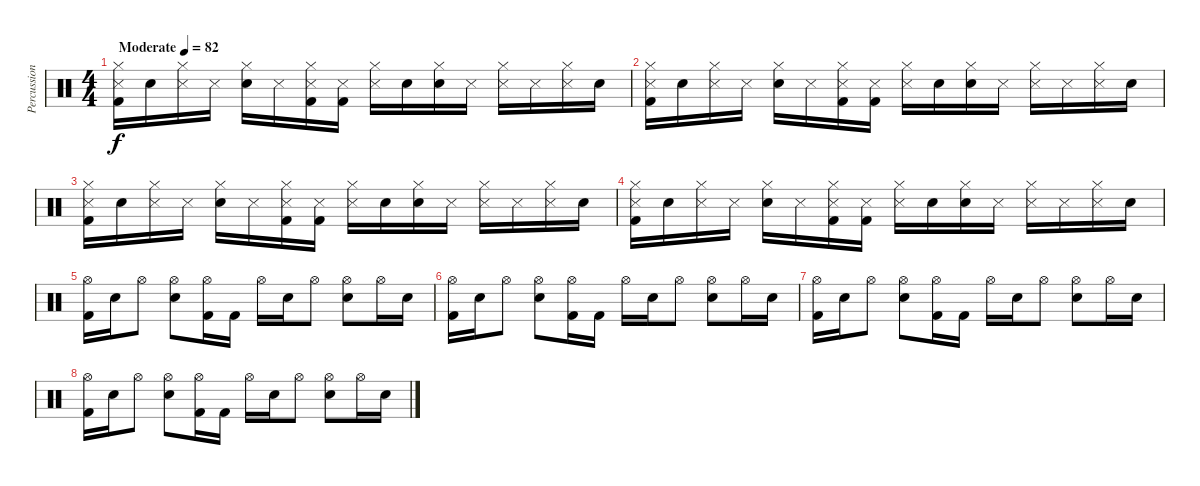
\track ("Percussion" "Percussion") {instrument percussion}
\staff {score}
\articulation defaults
\ts (4 4)
\tempo (82 "Moderate")
\clef neutral
\ks c
("Hi-Hat (closed)" "Snare (side stick) 3" "Kick (hit) 2").16{dy f} "Snare (hit) 2".16 ("Hi-Hat (closed)" "Snare (side stick) 3").16 "Snare (side stick) 3".16 ("Hi-Hat (closed)" "Snare (hit) 2").16 "Snare (side stick) 3".16 ("Hi-Hat (closed)" "Snare (side stick) 3" "Kick (hit) 2").16 ("Snare (side stick) 3" "Kick (hit) 2").16 ("Hi-Hat (closed)" "Snare (side stick) 3").16 "Snare (hit) 2".16 ("Hi-Hat (closed)" "Snare (hit) 2").16 "Snare (side stick) 3".16 ("Hi-Hat (closed)" "Snare (side stick) 3").16 "Snare (side stick) 3".16 ("Hi-Hat (closed)" "Snare (side stick) 3").16 "Snare (hit) 2".16 |
("Hi-Hat (closed)" "Snare (side stick) 3" "Kick (hit) 2").16 "Snare (hit) 2".16 ("Hi-Hat (closed)" "Snare (side stick) 3").16 "Snare (side stick) 3".16 ("Hi-Hat (closed)" "Snare (hit) 2").16 "Snare (side stick) 3".16 ("Hi-Hat (closed)" "Snare (side stick) 3" "Kick (hit) 2").16 ("Snare (side stick) 3" "Kick (hit) 2").16 ("Hi-Hat (closed)" "Snare (side stick) 3").16 "Snare (hit) 2".16 ("Hi-Hat (closed)" "Snare (hit) 2").16 "Snare (side stick) 3".16 ("Hi-Hat (closed)" "Snare (side stick) 3").16 "Snare (side stick) 3".16 ("Hi-Hat (closed)" "Snare (side stick) 3").16 "Snare (hit) 2".16 |
("Hi-Hat (closed)" "Snare (side stick) 3" "Kick (hit) 2").16 "Snare (hit) 2".16 ("Hi-Hat (closed)" "Snare (side stick) 3").16 "Snare (side stick) 3".16 ("Hi-Hat (closed)" "Snare (hit) 2").16 "Snare (side stick) 3".16 ("Hi-Hat (closed)" "Snare (side stick) 3" "Kick (hit) 2").16 ("Snare (side stick) 3" "Kick (hit) 2").16 ("Hi-Hat (closed)" "Snare (side stick) 3").16 "Snare (hit) 2".16 ("Hi-Hat (closed)" "Snare (hit) 2").16 "Snare (side stick) 3".16 ("Hi-Hat (closed)" "Snare (side stick) 3").16 "Snare (side stick) 3".16 ("Hi-Hat (closed)" "Snare (side stick) 3").16 "Snare (hit) 2".16 |
("Hi-Hat (closed)" "Snare (side stick) 3" "Kick (hit) 2").16 "Snare (hit) 2".16 ("Hi-Hat (closed)" "Snare (side stick) 3").16 "Snare (side stick) 3".16 ("Hi-Hat (closed)" "Snare (hit) 2").16 "Snare (side stick) 3".16 ("Hi-Hat (closed)" "Snare (side stick) 3" "Kick (hit) 2").16 ("Snare (side stick) 3" "Kick (hit) 2").16 ("Hi-Hat (closed)" "Snare (side stick) 3").16 "Snare (hit) 2".16 ("Hi-Hat (closed)" "Snare (hit) 2").16 "Snare (side stick) 3".16 ("Hi-Hat (closed)" "Snare (side stick) 3").16 "Snare (side stick) 3".16 ("Hi-Hat (closed)" "Snare (side stick) 3").16 "Snare (hit) 2".16 |
("Hi-Hat (open)" "Kick (hit) 2").16 "Snare (hit) 2".16 "Hi-Hat (open)".8 ("Hi-Hat (open)" "Snare (hit) 2").8 ("Hi-Hat (open)" "Kick (hit) 2").16 "Kick (hit) 2".16 "Hi-Hat (open)".16 "Snare (hit) 2".16 "Hi-Hat (open)".8 ("Hi-Hat (open)" "Snare (hit) 2").8 "Hi-Hat (open)".16 "Snare (hit) 2".16 |
("Hi-Hat (open)" "Kick (hit) 2").16 "Snare (hit) 2".16 "Hi-Hat (open)".8 ("Hi-Hat (open)" "Snare (hit) 2").8 ("Hi-Hat (open)" "Kick (hit) 2").16 "Kick (hit) 2".16 "Hi-Hat (open)".16 "Snare (hit) 2".16 "Hi-Hat (open)".8 ("Hi-Hat (open)" "Snare (hit) 2").8 "Hi-Hat (open)".16 "Snare (hit) 2".16 |
("Hi-Hat (open)" "Kick (hit) 2").16 "Snare (hit) 2".16 "Hi-Hat (open)".8 ("Hi-Hat (open)" "Snare (hit) 2").8 ("Hi-Hat (open)" "Kick (hit) 2").16 "Kick (hit) 2".16 "Hi-Hat (open)".16 "Snare (hit) 2".16 "Hi-Hat (open)".8 ("Hi-Hat (open)" "Snare (hit) 2").8 "Hi-Hat (open)".16 "Snare (hit) 2".16 |
("Hi-Hat (open)" "Kick (hit) 2").16 "Snare (hit) 2".16 "Hi-Hat (open)".8 ("Hi-Hat (open)" "Snare (hit) 2").8 ("Hi-Hat (open)" "Kick (hit) 2").16 "Kick (hit) 2".16 "Hi-Hat (open)".16 "Snare (hit) 2".16 "Hi-Hat (open)".8 ("Hi-Hat (open)" "Snare (hit) 2").8 "Hi-Hat (open)".16 "Snare (hit) 2".16
